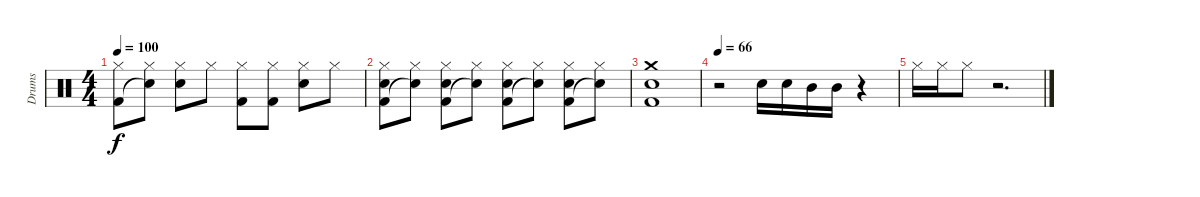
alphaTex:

\track ("Drums" "Drums") {instrument percussion}
\staff {score}
\articulation defaults
\ts (4 4)
\tempo 100
\clef neutral
\ks c
("Kick (hit) 2" "Hi-Hat (closed)").8{dy f} ("Snare (hit)"{t} "Hi-Hat (closed)").8 ("Snare (hit) 2" "Hi-Hat (closed)").8 "Hi-Hat (closed)".8 ("Kick (hit) 2" "Hi-Hat (closed)").8 ("Kick (hit) 2" "Hi-Hat (closed)").8 ("Snare (hit) 2" "Hi-Hat (closed)").8 "Hi-Hat (closed)".8 |
("Kick (hit) 2" "Snare (hit) 2" "Hi-Hat (closed)").8 ("Snare (hit)"{t} "Hi-Hat (closed)").8 ("Kick (hit) 2" "Snare (hit) 2" "Hi-Hat (closed)").8 ("Snare (hit)"{t} "Hi-Hat (closed)").8 ("Kick (hit) 2" "Snare (hit) 2" "Hi-Hat (closed)").8 ("Snare (hit)"{t} "Hi-Hat (closed)").8 ("Kick (hit) 2" "Snare (hit) 2" "Hi-Hat (closed)").8 ("Snare (hit)"{t} "Hi-Hat (closed)").8 |
("Kick (hit) 2" "Crash medium (hit)" "Snare (hit) 2").1 |
\tempo 66
r.2 "Snare (hit) 2".16 "Snare (hit) 2".16 "Mid Tom (hit)".16 "Mid Tom (hit)".16 r.4 |
"Hi-Hat (closed)".16 "Hi-Hat (closed)".16 "Hi-Hat (closed)".8 r.2{d}
